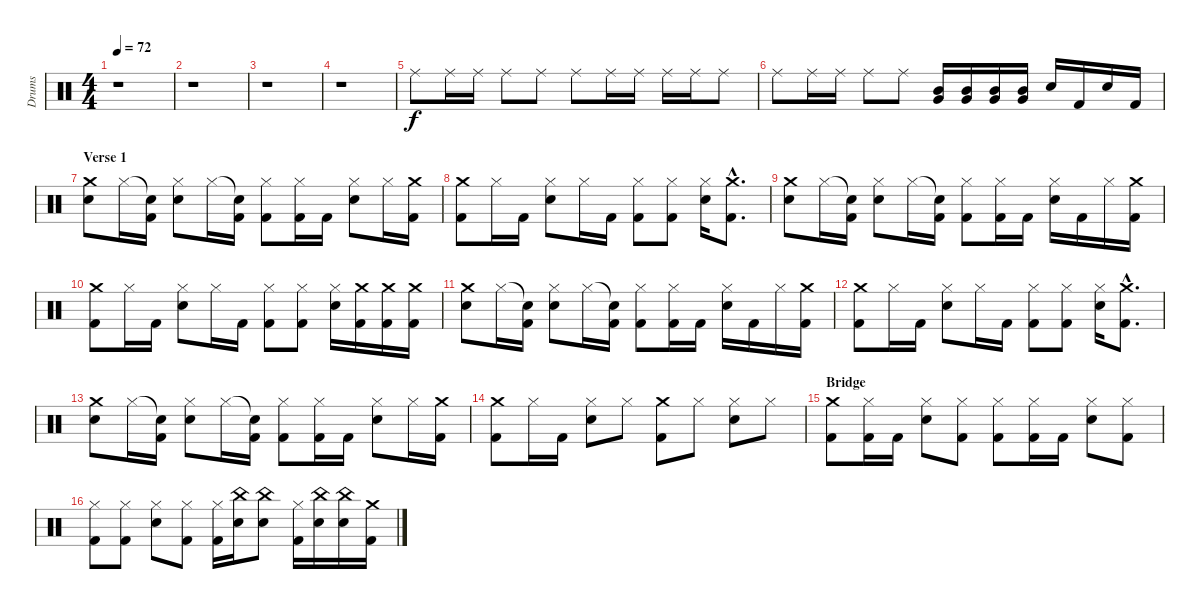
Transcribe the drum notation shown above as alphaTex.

\track ("Drums" "Drums") {instrument percussion}
\staff {score}
\articulation defaults
\ts (4 4)
\tempo 72
\clef neutral
\ks c
r.1{dy f} |
r.1 |
r.1 |
r.1 |
"Ride (middle)".8 "Ride (middle)".16 "Ride (middle)".16 "Ride (middle)".8 "Ride (middle)".8 "Ride (middle)".8 "Ride (middle)".16 "Ride (middle)".16 "Ride (middle)".16 "Ride (middle)".16 "Ride (middle)".8 |
"Ride (middle)".8 "Ride (middle)".16 "Ride (middle)".16 "Ride (middle)".8 "Ride (middle)".8 ("Very Low Tom (hit)" "Mid Tom (hit)").16 ("Very Low Tom (hit)" "Mid Tom (hit)").16 ("Very Low Tom (hit)" "Mid Tom (hit)").16 ("Very Low Tom (hit)" "Mid Tom (hit)").16 "Snare (hit) 2".16 "Kick (hit) 2".16 "Snare (hit) 2".16 "Kick (hit) 2".16 |
\section ("" "Verse 1")
("Crash medium (hit)" "Snare (hit) 2").8 "Hi-Hat (closed)".16 ("Snare (hit)"{t} "Kick (hit) 2").16 ("Hi-Hat (closed)" "Snare (hit) 2").8 "Hi-Hat (closed)".16 ("Snare (hit)"{t} "Kick (hit) 2").16 ("Hi-Hat (closed)" "Kick (hit) 2").8 ("Hi-Hat (closed)" "Kick (hit) 2").16 "Kick (hit) 2".16 ("Hi-Hat (closed)" "Snare (hit) 2").8 "Hi-Hat (closed)".16 ("Crash medium (hit)" "Kick (hit) 2").16 |
("Crash medium (hit)" "Kick (hit) 2").8 "Hi-Hat (closed)".16 "Kick (hit) 2".16 ("Hi-Hat (closed)" "Snare (hit) 2").8 "Hi-Hat (closed)".16 "Kick (hit) 2".16 ("Hi-Hat (closed)" "Kick (hit) 2").8 ("Hi-Hat (closed)" "Kick (hit) 2").8 ("Hi-Hat (closed)" "Snare (hit) 2").16 ("Crash medium (hit)"{hac} "Kick (hit) 2"{hac}).8{d} |
("Crash medium (hit)" "Snare (hit) 2").8 "Hi-Hat (closed)".16 ("Snare (hit)"{t} "Kick (hit) 2").16 ("Hi-Hat (closed)" "Snare (hit) 2").8 "Hi-Hat (closed)".16 ("Snare (hit)"{t} "Kick (hit) 2").16 ("Hi-Hat (closed)" "Kick (hit) 2").8 ("Hi-Hat (closed)" "Kick (hit) 2").16 "Kick (hit) 2".16 ("Hi-Hat (closed)" "Snare (hit) 2").16 "Kick (hit) 2".16 "Hi-Hat (closed)".16 ("Crash medium (hit)" "Kick (hit) 2").16 |
("Crash medium (hit)" "Kick (hit) 2").8 "Hi-Hat (closed)".16 "Kick (hit) 2".16 ("Hi-Hat (closed)" "Snare (hit) 2").8 "Hi-Hat (closed)".16 "Kick (hit) 2".16 ("Hi-Hat (closed)" "Kick (hit) 2").8 ("Hi-Hat (closed)" "Kick (hit) 2").8 ("Hi-Hat (closed)" "Snare (hit) 2").16 ("Crash medium (hit)" "Kick (hit) 2").16 ("Crash medium (hit)" "Kick (hit) 2").16 ("Crash medium (hit)" "Kick (hit) 2").16 |
("Crash medium (hit)" "Snare (hit) 2").8 "Hi-Hat (closed)".16 ("Snare (hit)"{t} "Kick (hit) 2").16 ("Hi-Hat (closed)" "Snare (hit) 2").8 "Hi-Hat (closed)".16 ("Snare (hit)"{t} "Kick (hit) 2").16 ("Hi-Hat (closed)" "Kick (hit) 2").8 ("Hi-Hat (closed)" "Kick (hit) 2").16 "Kick (hit) 2".16 ("Hi-Hat (closed)" "Snare (hit) 2").16 "Kick (hit) 2".16 "Hi-Hat (closed)".16 ("Crash medium (hit)" "Kick (hit) 2").16 |
("Crash medium (hit)" "Kick (hit) 2").8 "Hi-Hat (closed)".16 "Kick (hit) 2".16 ("Hi-Hat (closed)" "Snare (hit) 2").8 "Hi-Hat (closed)".16 "Kick (hit) 2".16 ("Hi-Hat (closed)" "Kick (hit) 2").8 ("Hi-Hat (closed)" "Kick (hit) 2").8 ("Hi-Hat (closed)" "Snare (hit) 2").16 ("Crash medium (hit)"{hac} "Kick (hit) 2"{hac}).8{d} |
("Crash medium (hit)" "Snare (hit) 2").8 "Hi-Hat (closed)".16 ("Snare (hit)"{t} "Kick (hit) 2").16 ("Hi-Hat (closed)" "Snare (hit) 2").8 "Hi-Hat (closed)".16 ("Snare (hit)"{t} "Kick (hit) 2").16 ("Hi-Hat (closed)" "Kick (hit) 2").8 ("Hi-Hat (closed)" "Kick (hit) 2").16 "Kick (hit) 2".16 ("Hi-Hat (closed)" "Snare (hit) 2").8 "Hi-Hat (closed)".16 ("Crash medium (hit)" "Kick (hit) 2").16 |
("Crash medium (hit)" "Kick (hit) 2").8 "Hi-Hat (closed)".16 "Kick (hit) 2".16 ("Hi-Hat (closed)" "Snare (hit) 2").8 "Hi-Hat (closed)".8 ("Crash medium (hit)" "Kick (hit) 2").8 "Hi-Hat (closed)".8 ("Hi-Hat (closed)" "Snare (hit) 2").8 "Hi-Hat (closed)".8 |
\section ("" "Bridge")
("Crash medium (hit)" "Kick (hit) 2").8 ("Hi-Hat (closed)" "Kick (hit) 2").16 "Kick (hit) 2".16 ("Hi-Hat (closed)" "Snare (hit) 2").8 ("Hi-Hat (closed)" "Kick (hit) 2").8 ("Hi-Hat (closed)" "Kick (hit) 2").8 ("Hi-Hat (closed)" "Kick (hit) 2").16 "Kick (hit) 2".16 ("Hi-Hat (closed)" "Snare (hit) 2").8 ("Hi-Hat (closed)" "Kick (hit) 2").8 |
("Hi-Hat (closed)" "Kick (hit) 2").8 ("Hi-Hat (closed)" "Kick (hit) 2").8 ("Hi-Hat (closed)" "Snare (hit) 2").8 ("Hi-Hat (closed)" "Kick (hit) 2").8 ("Hi-Hat (closed)" "Kick (hit) 2").16 ("China (hit)" "Snare (hit) 2").16 ("China (hit)" "Snare (hit) 2").8 ("Hi-Hat (closed)" "Kick (hit) 2").16 ("China (hit)" "Snare (hit) 2").16 ("China (hit)" "Snare (hit) 2").16 ("Crash medium (hit)" "Kick (hit) 2").16
